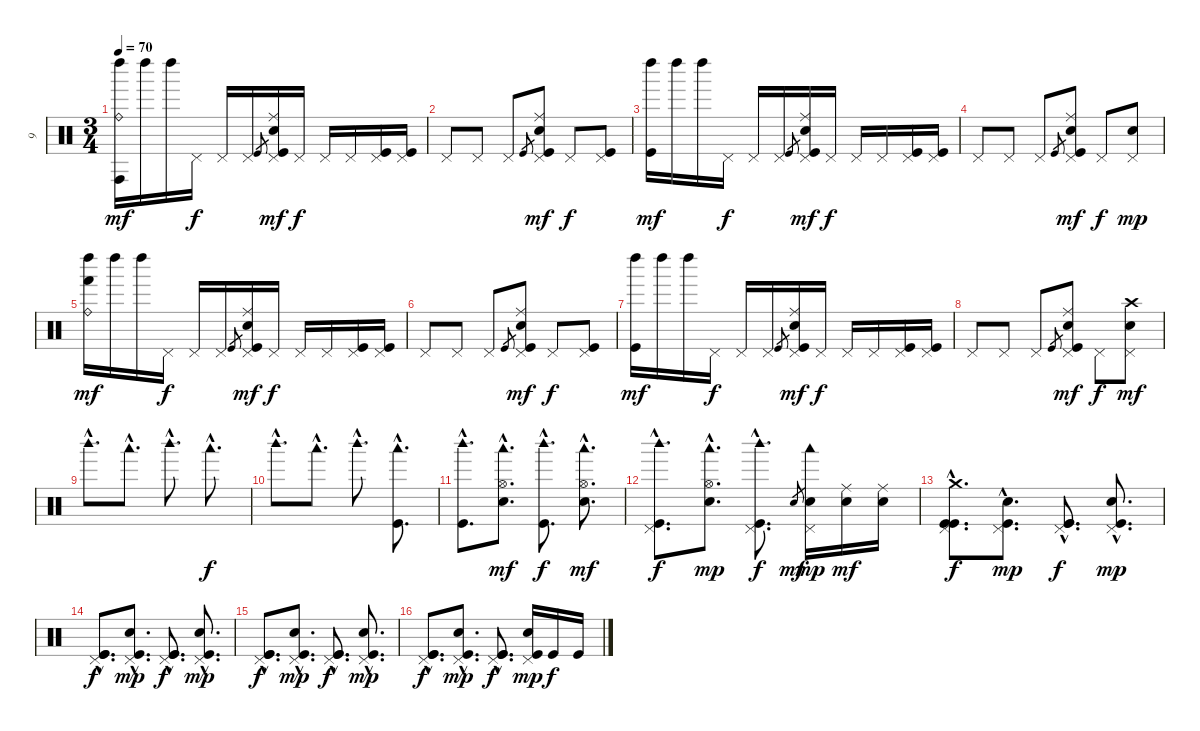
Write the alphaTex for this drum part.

\track ("9" "9") {instrument percussion}
\staff {score}
\articulation defaults
\ts (3 4)
\tempo 70
\clef neutral
\ks c
("Ride (bell)" "Conga high (hit)" "Left Maraca (hit)").16{dy mf} "Left Maraca (hit)".16 "Left Maraca (hit)".16 "Pedal Hi-Hat (hit)".16{dy f} "Pedal Hi-Hat (hit)".16 "Pedal Hi-Hat (hit)".16 "Kick (hit)".8{gr} ("Snare (hit) 2" "Ride (middle)" "Kick (hit)" "Pedal Hi-Hat (hit)").16{dy mf} "Pedal Hi-Hat (hit)".16{dy f} "Pedal Hi-Hat (hit)".16 "Pedal Hi-Hat (hit)".16 ("Kick (hit)" "Pedal Hi-Hat (hit)").16 ("Kick (hit)" "Pedal Hi-Hat (hit)").16 |
"Pedal Hi-Hat (hit)".8 "Pedal Hi-Hat (hit)".8 "Pedal Hi-Hat (hit)".8 "Kick (hit)".8{gr} ("Snare (hit) 2" "Ride (middle)" "Kick (hit)" "Pedal Hi-Hat (hit)").8{dy mf} "Pedal Hi-Hat (hit)".8{dy f} ("Kick (hit)" "Pedal Hi-Hat (hit)").8 |
("Kick (hit)" "Left Maraca (hit)").16{dy mf} "Left Maraca (hit)".16 "Left Maraca (hit)".16 "Pedal Hi-Hat (hit)".16{dy f} "Pedal Hi-Hat (hit)".16 "Pedal Hi-Hat (hit)".16 "Kick (hit)".8{gr} ("Snare (hit) 2" "Ride (middle)" "Kick (hit)" "Pedal Hi-Hat (hit)").16{dy mf} "Pedal Hi-Hat (hit)".16{dy f} "Pedal Hi-Hat (hit)".16 "Pedal Hi-Hat (hit)".16 ("Kick (hit)" "Pedal Hi-Hat (hit)").16 ("Kick (hit)" "Pedal Hi-Hat (hit)").16 |
"Pedal Hi-Hat (hit)".8 "Pedal Hi-Hat (hit)".8 "Pedal Hi-Hat (hit)".8 "Kick (hit)".8{gr} ("Snare (hit) 2" "Ride (middle)" "Kick (hit)" "Pedal Hi-Hat (hit)").8{dy mf} "Pedal Hi-Hat (hit)".8{dy f} ("Snare (hit) 2" "Pedal Hi-Hat (hit)").8{dy mp} |
("Ride (bell)" "Hand (hit)" "Left Maraca (hit)").16{dy mf} "Left Maraca (hit)".16 "Left Maraca (hit)".16 "Pedal Hi-Hat (hit)".16{dy f} "Pedal Hi-Hat (hit)".16 "Pedal Hi-Hat (hit)".16 "Kick (hit)".8{gr} ("Snare (hit) 2" "Ride (middle)" "Kick (hit)" "Pedal Hi-Hat (hit)").16{dy mf} "Pedal Hi-Hat (hit)".16{dy f} "Pedal Hi-Hat (hit)".16 "Pedal Hi-Hat (hit)".16 ("Kick (hit)" "Pedal Hi-Hat (hit)").16 ("Kick (hit)" "Pedal Hi-Hat (hit)").16 |
"Pedal Hi-Hat (hit)".8 "Pedal Hi-Hat (hit)".8 "Pedal Hi-Hat (hit)".8 "Kick (hit)".8{gr} ("Snare (hit) 2" "Ride (middle)" "Kick (hit)" "Pedal Hi-Hat (hit)").8{dy mf} "Pedal Hi-Hat (hit)".8{dy f} ("Kick (hit)" "Pedal Hi-Hat (hit)").8 |
("Kick (hit)" "Left Maraca (hit)").16{dy mf} "Left Maraca (hit)".16 "Left Maraca (hit)".16 "Pedal Hi-Hat (hit)".16{dy f} "Pedal Hi-Hat (hit)".16 "Pedal Hi-Hat (hit)".16 "Kick (hit)".8{gr} ("Snare (hit) 2" "Ride (middle)" "Kick (hit)" "Pedal Hi-Hat (hit)").16{dy mf} "Pedal Hi-Hat (hit)".16{dy f} "Pedal Hi-Hat (hit)".16 "Pedal Hi-Hat (hit)".16 ("Kick (hit)" "Pedal Hi-Hat (hit)").16 ("Kick (hit)" "Pedal Hi-Hat (hit)").16 |
"Pedal Hi-Hat (hit)".8 "Pedal Hi-Hat (hit)".8 "Pedal Hi-Hat (hit)".8 "Kick (hit)".8{gr} ("Snare (hit) 2" "Ride (middle)" "Kick (hit)" "Pedal Hi-Hat (hit)").8{dy mf} "Pedal Hi-Hat (hit)".8{dy f} ("Snare (hit) 2" "Pedal Hi-Hat (hit)" "Crash high (hit)").8{dy mf} |
"Woodblock high (hit)"{hac}.8{d} "Woodblock low (hit)"{hac}.8{d} "Woodblock high (hit)"{hac}.8{d} "Woodblock low (hit)"{hac}.8{d dy f} |
"Woodblock high (hit)"{hac}.8{d} "Woodblock low (hit)"{hac}.8{d} "Woodblock high (hit)"{hac}.8{d} ("Woodblock low (hit)"{hac} "Kick (hit)"{hac}).8{d} |
("Woodblock high (hit)"{hac} "Kick (hit)"{hac}).8{d} ("Woodblock low (hit)"{hac} "Hi-Hat (open)"{hac} "Snare (hit) 2"{hac}).8{d dy mf} ("Woodblock high (hit)"{hac} "Kick (hit)"{hac}).8{d dy f} ("Woodblock low (hit)"{hac} "Hi-Hat (open)"{hac} "Snare (hit) 2"{hac}).8{d dy mf} |
("Woodblock high (hit)"{hac} "Kick (hit)"{hac} "Pedal Hi-Hat (hit)"{hac}).8{d dy f} ("Woodblock low (hit)"{hac} "Snare (hit) 2"{hac} "Hi-Hat (open)"{hac}).8{d dy mp} ("Woodblock high (hit)"{hac} "Kick (hit)"{hac} "Pedal Hi-Hat (hit)"{hac}).8{d dy f} "Snare (hit) 2".8{gr dy mf} ("Woodblock low (hit)" "Snare (hit) 2" "Pedal Hi-Hat (hit)").16{dy mp} ("Snare (hit) 2" "Ride (middle)").16{dy mf} ("Snare (hit) 2" "Ride (middle)").16 |
("Kick (hit)"{hac} "Kick (hit)"{hac} "Pedal Hi-Hat (hit)"{hac} "Crash medium (hit)"{hac}).8{d dy f} ("Kick (hit)"{hac} "Snare (hit) 2"{hac} "Pedal Hi-Hat (hit)"{hac}).8{d dy mp} ("Kick (hit)"{hac} "Kick (hit)"{hac} "Pedal Hi-Hat (hit)"{hac}).8{d dy f} ("Kick (hit)"{hac} "Snare (hit) 2"{hac} "Pedal Hi-Hat (hit)"{hac}).8{d dy mp} |
("Kick (hit)"{hac} "Kick (hit)"{hac} "Pedal Hi-Hat (hit)"{hac}).8{d dy f} ("Kick (hit)"{hac} "Snare (hit) 2"{hac} "Pedal Hi-Hat (hit)"{hac}).8{d dy mp} ("Kick (hit)"{hac} "Kick (hit)"{hac} "Pedal Hi-Hat (hit)"{hac}).8{d dy f} ("Kick (hit)"{hac} "Snare (hit) 2"{hac} "Pedal Hi-Hat (hit)"{hac}).8{d dy mp} |
("Kick (hit)"{hac} "Kick (hit)"{hac} "Pedal Hi-Hat (hit)"{hac}).8{d dy f} ("Kick (hit)"{hac} "Snare (hit) 2"{hac} "Pedal Hi-Hat (hit)"{hac}).8{d dy mp} ("Kick (hit)"{hac} "Kick (hit)"{hac} "Pedal Hi-Hat (hit)"{hac}).8{d dy f} ("Kick (hit)"{hac} "Snare (hit) 2"{hac} "Pedal Hi-Hat (hit)"{hac}).8{d dy mp} |
("Kick (hit)"{hac} "Kick (hit)"{hac} "Pedal Hi-Hat (hit)"{hac}).8{d dy f} ("Kick (hit)"{hac} "Snare (hit) 2"{hac} "Pedal Hi-Hat (hit)"{hac}).8{d dy mp} ("Kick (hit)"{hac} "Kick (hit)"{hac} "Pedal Hi-Hat (hit)"{hac}).8{d dy f} ("Kick (hit)" "Snare (hit) 2" "Pedal Hi-Hat (hit)").16{dy mp} "Kick (hit)".16{dy f} "Kick (hit)".16
